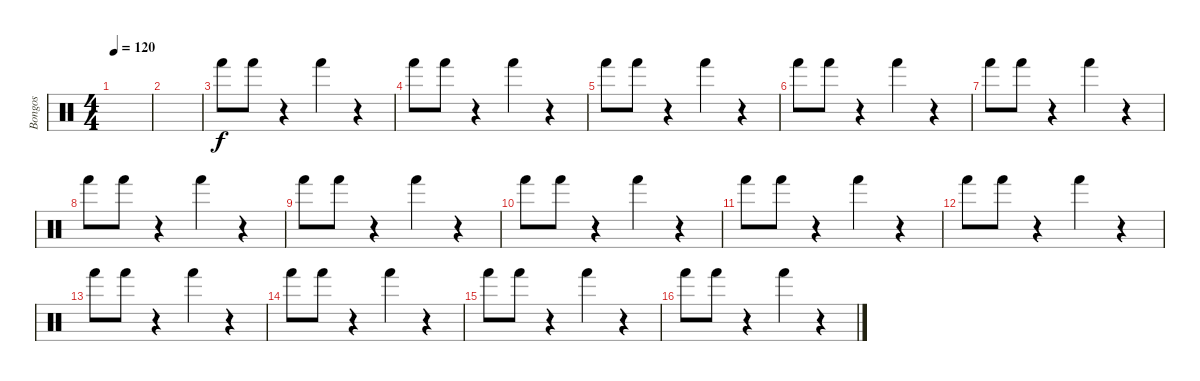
\track ("Bongos" "Bongos") {instrument percussion}
\staff {score}
\articulation defaults
\ts (4 4)
\tempo 120
\clef neutral
\ks c
|
|
"Hand (hit)".8 "Hand (hit)".8 r.4 "Hand (hit)".4 r.4 |
"Hand (hit)".8 "Hand (hit)".8 r.4 "Hand (hit)".4 r.4 |
"Hand (hit)".8 "Hand (hit)".8 r.4 "Hand (hit)".4 r.4 |
"Hand (hit)".8 "Hand (hit)".8 r.4 "Hand (hit)".4 r.4 |
"Hand (hit)".8 "Hand (hit)".8 r.4 "Hand (hit)".4 r.4 |
"Hand (hit)".8 "Hand (hit)".8 r.4 "Hand (hit)".4 r.4 |
"Hand (hit)".8 "Hand (hit)".8 r.4 "Hand (hit)".4 r.4 |
"Hand (hit)".8 "Hand (hit)".8 r.4 "Hand (hit)".4 r.4 |
"Hand (hit)".8 "Hand (hit)".8 r.4 "Hand (hit)".4 r.4 |
"Hand (hit)".8 "Hand (hit)".8 r.4 "Hand (hit)".4 r.4 |
"Hand (hit)".8 "Hand (hit)".8 r.4 "Hand (hit)".4 r.4 |
"Hand (hit)".8 "Hand (hit)".8 r.4 "Hand (hit)".4 r.4 |
"Hand (hit)".8 "Hand (hit)".8 r.4 "Hand (hit)".4 r.4 |
"Hand (hit)".8 "Hand (hit)".8 r.4 "Hand (hit)".4 r.4
